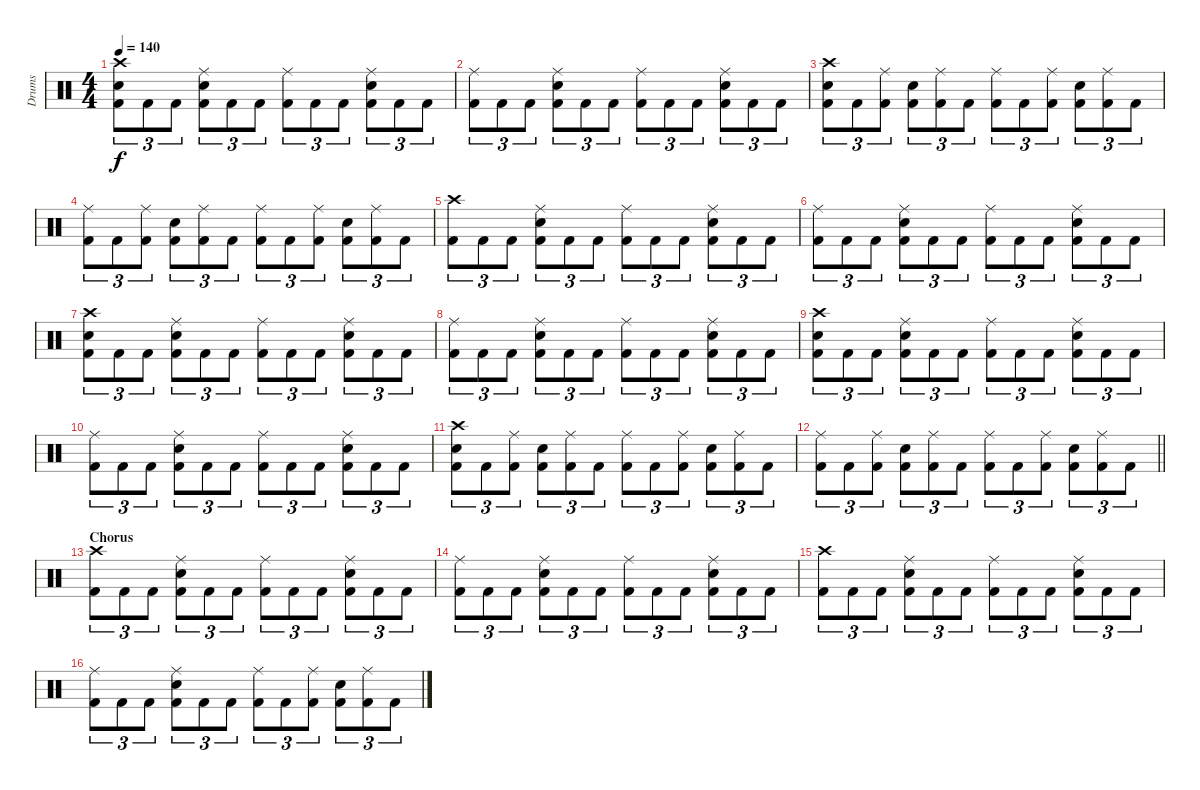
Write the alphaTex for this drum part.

\track ("Drums" "Drums") {instrument percussion}
\staff {score}
\articulation defaults
\ts (4 4)
\tempo 140
\clef neutral
\ks c
("Crash high (hit)" "Snare (hit) 2" "Kick (hit) 2").8{tu (3 2) dy f} "Kick (hit) 2".8{tu (3 2)} "Kick (hit) 2".8{tu (3 2)} ("Ride (middle)" "Snare (hit) 2" "Kick (hit) 2").8{tu (3 2)} "Kick (hit) 2".8{tu (3 2)} "Kick (hit) 2".8{tu (3 2)} ("Ride (middle)" "Kick (hit) 2").8{tu (3 2)} "Kick (hit) 2".8{tu (3 2)} "Kick (hit) 2".8{tu (3 2)} ("Ride (middle)" "Snare (hit) 2" "Kick (hit) 2").8{tu (3 2)} "Kick (hit) 2".8{tu (3 2)} "Kick (hit) 2".8{tu (3 2)} |
("Ride (middle)" "Kick (hit) 2").8{tu (3 2)} "Kick (hit) 2".8{tu (3 2)} "Kick (hit) 2".8{tu (3 2)} ("Ride (middle)" "Snare (hit) 2" "Kick (hit) 2").8{tu (3 2)} "Kick (hit) 2".8{tu (3 2)} "Kick (hit) 2".8{tu (3 2)} ("Ride (middle)" "Kick (hit) 2").8{tu (3 2)} "Kick (hit) 2".8{tu (3 2)} "Kick (hit) 2".8{tu (3 2)} ("Ride (middle)" "Snare (hit) 2" "Kick (hit) 2").8{tu (3 2)} "Kick (hit) 2".8{tu (3 2)} "Kick (hit) 2".8{tu (3 2)} |
("Crash high (hit)" "Snare (hit) 2" "Kick (hit) 2").8{tu (3 2)} "Kick (hit) 2".8{tu (3 2)} ("Ride (middle)" "Kick (hit) 2").8{tu (3 2)} ("Snare (hit) 2" "Kick (hit) 2").8{tu (3 2)} ("Ride (middle)" "Kick (hit) 2").8{tu (3 2)} "Kick (hit) 2".8{tu (3 2)} ("Ride (middle)" "Kick (hit) 2").8{tu (3 2)} "Kick (hit) 2".8{tu (3 2)} ("Ride (middle)" "Kick (hit) 2").8{tu (3 2)} ("Snare (hit) 2" "Kick (hit) 2").8{tu (3 2)} ("Ride (middle)" "Kick (hit) 2").8{tu (3 2)} "Kick (hit) 2".8{tu (3 2)} |
("Ride (middle)" "Kick (hit) 2").8{tu (3 2)} "Kick (hit) 2".8{tu (3 2)} ("Ride (middle)" "Kick (hit) 2").8{tu (3 2)} ("Snare (hit) 2" "Kick (hit) 2").8{tu (3 2)} ("Ride (middle)" "Kick (hit) 2").8{tu (3 2)} "Kick (hit) 2".8{tu (3 2)} ("Ride (middle)" "Kick (hit) 2").8{tu (3 2)} "Kick (hit) 2".8{tu (3 2)} ("Ride (middle)" "Kick (hit) 2").8{tu (3 2)} ("Snare (hit) 2" "Kick (hit) 2").8{tu (3 2)} ("Ride (middle)" "Kick (hit) 2").8{tu (3 2)} "Kick (hit) 2".8{tu (3 2)} |
("Crash high (hit)" "Kick (hit) 2").8{tu (3 2)} "Kick (hit) 2".8{tu (3 2)} "Kick (hit) 2".8{tu (3 2)} ("Ride (middle)" "Snare (hit) 2" "Kick (hit) 2").8{tu (3 2)} "Kick (hit) 2".8{tu (3 2)} "Kick (hit) 2".8{tu (3 2)} ("Ride (middle)" "Kick (hit) 2").8{tu (3 2)} "Kick (hit) 2".8{tu (3 2)} "Kick (hit) 2".8{tu (3 2)} ("Ride (middle)" "Snare (hit) 2" "Kick (hit) 2").8{tu (3 2)} "Kick (hit) 2".8{tu (3 2)} "Kick (hit) 2".8{tu (3 2)} |
("Ride (middle)" "Kick (hit) 2").8{tu (3 2)} "Kick (hit) 2".8{tu (3 2)} "Kick (hit) 2".8{tu (3 2)} ("Ride (middle)" "Snare (hit) 2" "Kick (hit) 2").8{tu (3 2)} "Kick (hit) 2".8{tu (3 2)} "Kick (hit) 2".8{tu (3 2)} ("Ride (middle)" "Kick (hit) 2").8{tu (3 2)} "Kick (hit) 2".8{tu (3 2)} "Kick (hit) 2".8{tu (3 2)} ("Ride (middle)" "Snare (hit) 2" "Kick (hit) 2").8{tu (3 2)} "Kick (hit) 2".8{tu (3 2)} "Kick (hit) 2".8{tu (3 2)} |
("Crash high (hit)" "Snare (hit) 2" "Kick (hit) 2").8{tu (3 2)} "Kick (hit) 2".8{tu (3 2)} "Kick (hit) 2".8{tu (3 2)} ("Ride (middle)" "Snare (hit) 2" "Kick (hit) 2").8{tu (3 2)} "Kick (hit) 2".8{tu (3 2)} "Kick (hit) 2".8{tu (3 2)} ("Ride (middle)" "Kick (hit) 2").8{tu (3 2)} "Kick (hit) 2".8{tu (3 2)} "Kick (hit) 2".8{tu (3 2)} ("Ride (middle)" "Snare (hit) 2" "Kick (hit) 2").8{tu (3 2)} "Kick (hit) 2".8{tu (3 2)} "Kick (hit) 2".8{tu (3 2)} |
("Ride (middle)" "Kick (hit) 2").8{tu (3 2)} "Kick (hit) 2".8{tu (3 2)} "Kick (hit) 2".8{tu (3 2)} ("Ride (middle)" "Snare (hit) 2" "Kick (hit) 2").8{tu (3 2)} "Kick (hit) 2".8{tu (3 2)} "Kick (hit) 2".8{tu (3 2)} ("Ride (middle)" "Kick (hit) 2").8{tu (3 2)} "Kick (hit) 2".8{tu (3 2)} "Kick (hit) 2".8{tu (3 2)} ("Ride (middle)" "Snare (hit) 2" "Kick (hit) 2").8{tu (3 2)} "Kick (hit) 2".8{tu (3 2)} "Kick (hit) 2".8{tu (3 2)} |
("Crash high (hit)" "Snare (hit) 2" "Kick (hit) 2").8{tu (3 2)} "Kick (hit) 2".8{tu (3 2)} "Kick (hit) 2".8{tu (3 2)} ("Ride (middle)" "Snare (hit) 2" "Kick (hit) 2").8{tu (3 2)} "Kick (hit) 2".8{tu (3 2)} "Kick (hit) 2".8{tu (3 2)} ("Ride (middle)" "Kick (hit) 2").8{tu (3 2)} "Kick (hit) 2".8{tu (3 2)} "Kick (hit) 2".8{tu (3 2)} ("Ride (middle)" "Snare (hit) 2" "Kick (hit) 2").8{tu (3 2)} "Kick (hit) 2".8{tu (3 2)} "Kick (hit) 2".8{tu (3 2)} |
("Ride (middle)" "Kick (hit) 2").8{tu (3 2)} "Kick (hit) 2".8{tu (3 2)} "Kick (hit) 2".8{tu (3 2)} ("Ride (middle)" "Snare (hit) 2" "Kick (hit) 2").8{tu (3 2)} "Kick (hit) 2".8{tu (3 2)} "Kick (hit) 2".8{tu (3 2)} ("Ride (middle)" "Kick (hit) 2").8{tu (3 2)} "Kick (hit) 2".8{tu (3 2)} "Kick (hit) 2".8{tu (3 2)} ("Ride (middle)" "Snare (hit) 2" "Kick (hit) 2").8{tu (3 2)} "Kick (hit) 2".8{tu (3 2)} "Kick (hit) 2".8{tu (3 2)} |
("Crash high (hit)" "Snare (hit) 2" "Kick (hit) 2").8{tu (3 2)} "Kick (hit) 2".8{tu (3 2)} ("Ride (middle)" "Kick (hit) 2").8{tu (3 2)} ("Snare (hit) 2" "Kick (hit) 2").8{tu (3 2)} ("Ride (middle)" "Kick (hit) 2").8{tu (3 2)} "Kick (hit) 2".8{tu (3 2)} ("Ride (middle)" "Kick (hit) 2").8{tu (3 2)} "Kick (hit) 2".8{tu (3 2)} ("Ride (middle)" "Kick (hit) 2").8{tu (3 2)} ("Snare (hit) 2" "Kick (hit) 2").8{tu (3 2)} ("Ride (middle)" "Kick (hit) 2").8{tu (3 2)} "Kick (hit) 2".8{tu (3 2)} |
\barLineRight lightlight
("Ride (middle)" "Kick (hit) 2").8{tu (3 2)} "Kick (hit) 2".8{tu (3 2)} ("Ride (middle)" "Kick (hit) 2").8{tu (3 2)} ("Snare (hit) 2" "Kick (hit) 2").8{tu (3 2)} ("Ride (middle)" "Kick (hit) 2").8{tu (3 2)} "Kick (hit) 2".8{tu (3 2)} ("Ride (middle)" "Kick (hit) 2").8{tu (3 2)} "Kick (hit) 2".8{tu (3 2)} ("Ride (middle)" "Kick (hit) 2").8{tu (3 2)} ("Snare (hit) 2" "Kick (hit) 2").8{tu (3 2)} ("Ride (middle)" "Kick (hit) 2").8{tu (3 2)} "Kick (hit) 2".8{tu (3 2)} |
\section ("" "Chorus")
("Crash high (hit)" "Kick (hit) 2").8{tu (3 2)} "Kick (hit) 2".8{tu (3 2)} "Kick (hit) 2".8{tu (3 2)} ("Ride (middle)" "Snare (hit) 2" "Kick (hit) 2").8{tu (3 2)} "Kick (hit) 2".8{tu (3 2)} "Kick (hit) 2".8{tu (3 2)} ("Ride (middle)" "Kick (hit) 2").8{tu (3 2)} "Kick (hit) 2".8{tu (3 2)} "Kick (hit) 2".8{tu (3 2)} ("Ride (middle)" "Snare (hit) 2" "Kick (hit) 2").8{tu (3 2)} "Kick (hit) 2".8{tu (3 2)} "Kick (hit) 2".8{tu (3 2)} |
("Ride (middle)" "Kick (hit) 2").8{tu (3 2)} "Kick (hit) 2".8{tu (3 2)} "Kick (hit) 2".8{tu (3 2)} ("Ride (middle)" "Snare (hit) 2" "Kick (hit) 2").8{tu (3 2)} "Kick (hit) 2".8{tu (3 2)} "Kick (hit) 2".8{tu (3 2)} ("Ride (middle)" "Kick (hit) 2").8{tu (3 2)} "Kick (hit) 2".8{tu (3 2)} "Kick (hit) 2".8{tu (3 2)} ("Ride (middle)" "Snare (hit) 2" "Kick (hit) 2").8{tu (3 2)} "Kick (hit) 2".8{tu (3 2)} "Kick (hit) 2".8{tu (3 2)} |
("Crash high (hit)" "Kick (hit) 2").8{tu (3 2)} "Kick (hit) 2".8{tu (3 2)} "Kick (hit) 2".8{tu (3 2)} ("Ride (middle)" "Snare (hit) 2" "Kick (hit) 2").8{tu (3 2)} "Kick (hit) 2".8{tu (3 2)} "Kick (hit) 2".8{tu (3 2)} ("Ride (middle)" "Kick (hit) 2").8{tu (3 2)} "Kick (hit) 2".8{tu (3 2)} "Kick (hit) 2".8{tu (3 2)} ("Ride (middle)" "Snare (hit) 2" "Kick (hit) 2").8{tu (3 2)} "Kick (hit) 2".8{tu (3 2)} "Kick (hit) 2".8{tu (3 2)} |
("Ride (middle)" "Kick (hit) 2").8{tu (3 2)} "Kick (hit) 2".8{tu (3 2)} "Kick (hit) 2".8{tu (3 2)} ("Ride (middle)" "Snare (hit) 2" "Kick (hit) 2").8{tu (3 2)} "Kick (hit) 2".8{tu (3 2)} "Kick (hit) 2".8{tu (3 2)} ("Ride (middle)" "Kick (hit) 2").8{tu (3 2)} "Kick (hit) 2".8{tu (3 2)} ("Ride (middle)" "Kick (hit) 2").8{tu (3 2)} ("Snare (hit) 2" "Kick (hit) 2").8{tu (3 2)} ("Ride (middle)" "Kick (hit) 2").8{tu (3 2)} "Kick (hit) 2".8{tu (3 2)}
